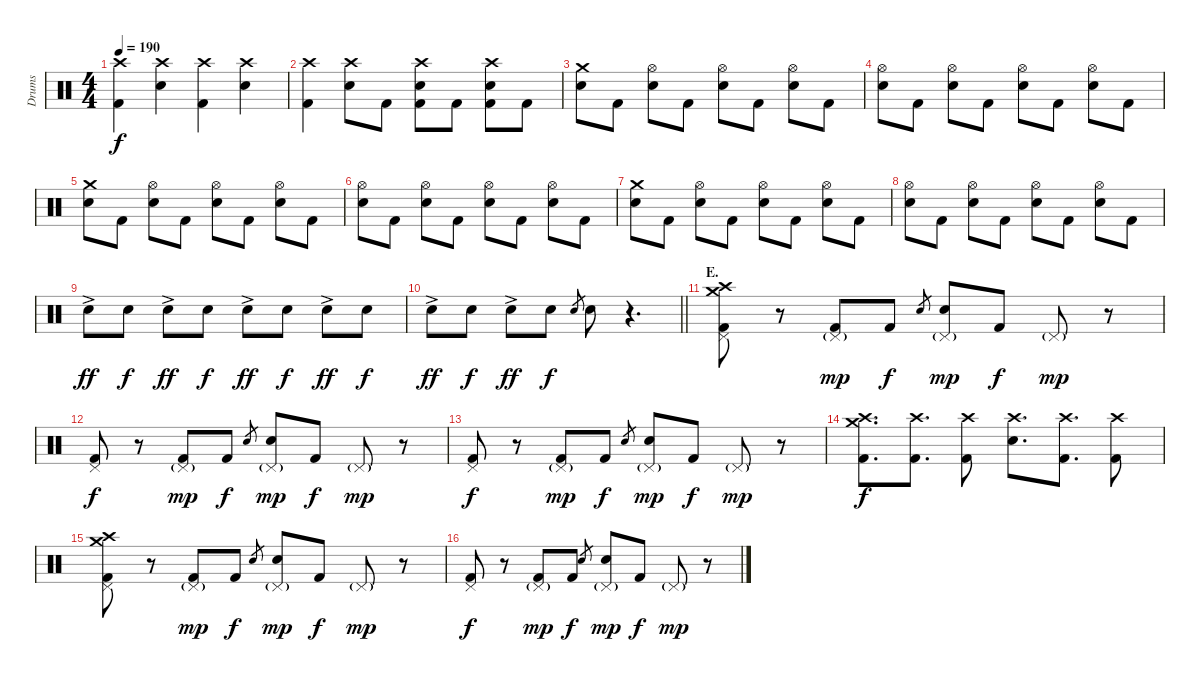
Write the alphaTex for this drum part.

\track ("Drums" "Drums") {instrument percussion}
\staff {score}
\articulation defaults
\ts (4 4)
\tempo 190
\clef neutral
\ks c
("Crash high (hit)" "Kick (hit) 2").4{dy f} ("Crash high (hit)" "Electric Snare (hit)").4 ("Crash high (hit)" "Kick (hit) 2").4 ("Crash high (hit)" "Electric Snare (hit)").4 |
("Crash high (hit)" "Kick (hit) 2").4 ("Crash high (hit)" "Electric Snare (hit)").8 "Kick (hit) 2".8 ("Crash high (hit)" "Electric Snare (hit)" "Kick (hit) 2").8 "Kick (hit) 2".8 ("Crash high (hit)" "Electric Snare (hit)" "Kick (hit) 2").8 "Kick (hit) 2".8 |
("Crash medium (hit)" "Electric Snare (hit)").8 "Kick (hit) 2".8 ("Hi-Hat (open)" "Electric Snare (hit)").8 "Kick (hit) 2".8 ("Hi-Hat (open)" "Electric Snare (hit)").8 "Kick (hit) 2".8 ("Hi-Hat (open)" "Electric Snare (hit)").8 "Kick (hit) 2".8 |
("Hi-Hat (open)" "Electric Snare (hit)").8 "Kick (hit) 2".8 ("Hi-Hat (open)" "Electric Snare (hit)").8 "Kick (hit) 2".8 ("Hi-Hat (open)" "Electric Snare (hit)").8 "Kick (hit) 2".8 ("Hi-Hat (open)" "Electric Snare (hit)").8 "Kick (hit) 2".8 |
("Crash medium (hit)" "Electric Snare (hit)").8 "Kick (hit) 2".8 ("Hi-Hat (open)" "Electric Snare (hit)").8 "Kick (hit) 2".8 ("Hi-Hat (open)" "Electric Snare (hit)").8 "Kick (hit) 2".8 ("Hi-Hat (open)" "Electric Snare (hit)").8 "Kick (hit) 2".8 |
("Hi-Hat (open)" "Electric Snare (hit)").8 "Kick (hit) 2".8 ("Hi-Hat (open)" "Electric Snare (hit)").8 "Kick (hit) 2".8 ("Hi-Hat (open)" "Electric Snare (hit)").8 "Kick (hit) 2".8 ("Hi-Hat (open)" "Electric Snare (hit)").8 "Kick (hit) 2".8 |
("Crash medium (hit)" "Electric Snare (hit)").8 "Kick (hit) 2".8 ("Hi-Hat (open)" "Electric Snare (hit)").8 "Kick (hit) 2".8 ("Hi-Hat (open)" "Electric Snare (hit)").8 "Kick (hit) 2".8 ("Hi-Hat (open)" "Electric Snare (hit)").8 "Kick (hit) 2".8 |
("Hi-Hat (open)" "Electric Snare (hit)").8 "Kick (hit) 2".8 ("Hi-Hat (open)" "Electric Snare (hit)").8 "Kick (hit) 2".8 ("Hi-Hat (open)" "Electric Snare (hit)").8 "Kick (hit) 2".8 ("Hi-Hat (open)" "Electric Snare (hit)").8 "Kick (hit) 2".8 |
"Electric Snare (hit)"{ac}.8{dy ff} "Electric Snare (hit)".8{dy f} "Electric Snare (hit)"{ac}.8{dy ff} "Electric Snare (hit)".8{dy f} "Electric Snare (hit)"{ac}.8{dy ff} "Electric Snare (hit)".8{dy f} "Electric Snare (hit)"{ac}.8{dy ff} "Electric Snare (hit)".8{dy f} |
\barLineRight lightlight "Electric Snare (hit)"{ac}.8{dy ff} "Electric Snare (hit)".8{dy f} "Electric Snare (hit)"{ac}.8{dy ff} "Electric Snare (hit)".8{dy f} "Electric Snare (hit)".8{gr} "Electric Snare (hit)".8
r.4{d} |
\section ("" "E.")
("Crash medium (hit)" "Crash high (hit)" "Pedal Hi-Hat (hit)" "Kick (hit) 2").8 r.8 ("Pedal Hi-Hat (hit)"{g} "Kick (hit) 2").8{dy mp} "Kick (hit) 2".8{dy f} "Electric Snare (hit)".8{gr} ("Pedal Hi-Hat (hit)"{g} "Electric Snare (hit)").8{dy mp} "Kick (hit) 2".8{dy f} "Pedal Hi-Hat (hit)"{g}.8{dy mp} r.8 |
("Pedal Hi-Hat (hit)" "Kick (hit) 2").8{dy f} r.8 ("Pedal Hi-Hat (hit)"{g} "Kick (hit) 2").8{dy mp} "Kick (hit) 2".8{dy f} "Electric Snare (hit)".8{gr} ("Pedal Hi-Hat (hit)"{g} "Electric Snare (hit)").8{dy mp} "Kick (hit) 2".8{dy f} "Pedal Hi-Hat (hit)"{g}.8{dy mp} r.8 |
("Pedal Hi-Hat (hit)" "Kick (hit) 2").8{dy f} r.8 ("Pedal Hi-Hat (hit)"{g} "Kick (hit) 2").8{dy mp} "Kick (hit) 2".8{dy f} "Electric Snare (hit)".8{gr} ("Pedal Hi-Hat (hit)"{g} "Electric Snare (hit)").8{dy mp} "Kick (hit) 2".8{dy f} "Pedal Hi-Hat (hit)"{g}.8{dy mp} r.8 |
("Crash medium (hit)" "Crash high (hit)" "Kick (hit) 2").8{d dy f} ("Crash high (hit)" "Kick (hit) 2").8{d} ("Crash high (hit)" "Kick (hit) 2").8 ("Crash high (hit)" "Electric Snare (hit)").8{d} ("Crash high (hit)" "Kick (hit) 2").8{d} ("Crash high (hit)" "Kick (hit) 2").8 |
("Crash medium (hit)" "Crash high (hit)" "Pedal Hi-Hat (hit)" "Kick (hit) 2").8 r.8 ("Pedal Hi-Hat (hit)"{g} "Kick (hit) 2").8{dy mp} "Kick (hit) 2".8{dy f} "Electric Snare (hit)".8{gr} ("Pedal Hi-Hat (hit)"{g} "Electric Snare (hit)").8{dy mp} "Kick (hit) 2".8{dy f} "Pedal Hi-Hat (hit)"{g}.8{dy mp} r.8 |
("Pedal Hi-Hat (hit)" "Kick (hit) 2").8{dy f} r.8 ("Pedal Hi-Hat (hit)"{g} "Kick (hit) 2").8{dy mp} "Kick (hit) 2".8{dy f} "Electric Snare (hit)".8{gr} ("Pedal Hi-Hat (hit)"{g} "Electric Snare (hit)").8{dy mp} "Kick (hit) 2".8{dy f} "Pedal Hi-Hat (hit)"{g}.8{dy mp} r.8
